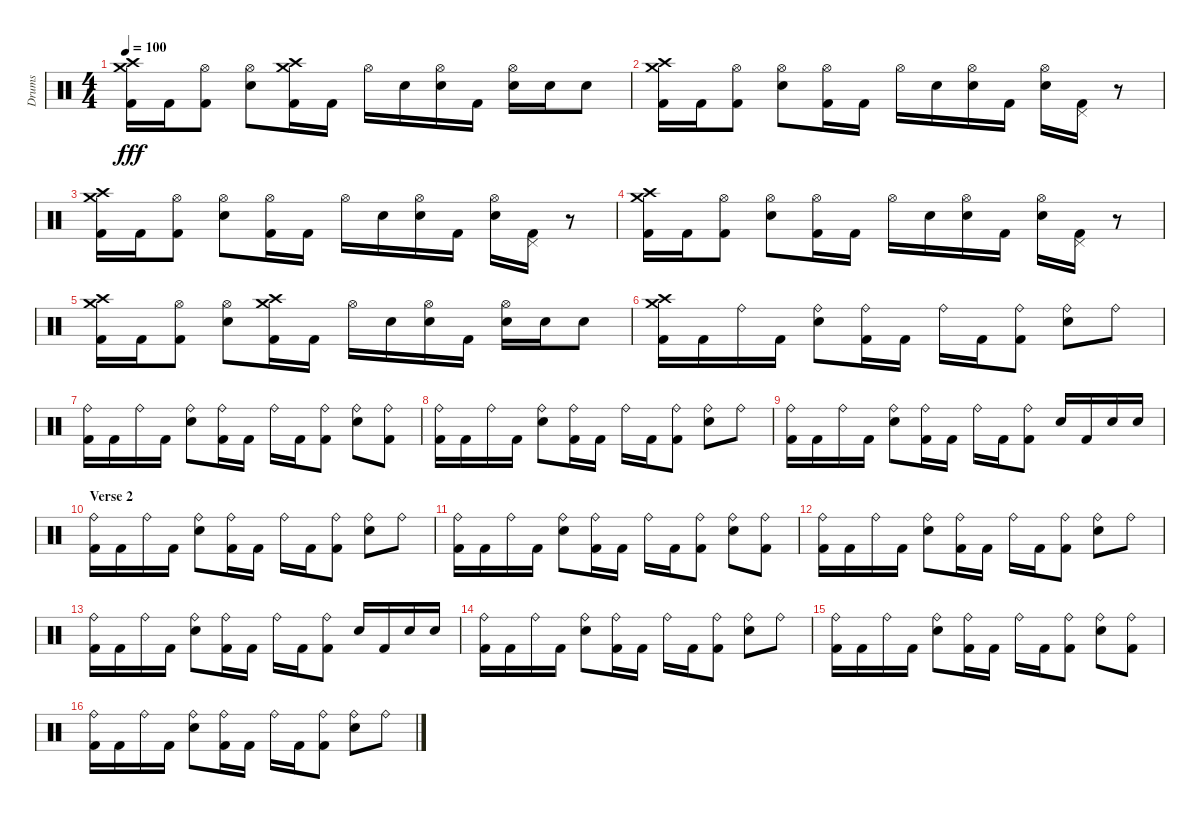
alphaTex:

\track ("Drums" "Drums") {instrument percussion}
\staff {score}
\articulation defaults
\ts (4 4)
\tempo 100
\clef neutral
\ks c
("Crash high (hit)" "Crash medium (hit)" "Kick (hit) 2").16{dy fff} "Kick (hit) 2".16 ("Hi-Hat (open)" "Kick (hit) 2").8 ("Hi-Hat (open)" "Electric Snare (hit)").8 ("Crash high (hit)" "Crash medium (hit)" "Kick (hit) 2").16 "Kick (hit) 2".16 "Hi-Hat (open)".16 "Electric Snare (hit)".16 ("Hi-Hat (open)" "Electric Snare (hit)").16 "Kick (hit) 2".16 ("Hi-Hat (open)" "Electric Snare (hit)").16 "Electric Snare (hit)".16 "Electric Snare (hit)".8 |
("Crash high (hit)" "Crash medium (hit)" "Kick (hit) 2").16 "Kick (hit) 2".16 ("Hi-Hat (open)" "Kick (hit) 2").8 ("Hi-Hat (open)" "Electric Snare (hit)").8 ("Hi-Hat (open)" "Kick (hit) 2").16 "Kick (hit) 2".16 "Hi-Hat (open)".16 "Electric Snare (hit)".16 ("Hi-Hat (open)" "Electric Snare (hit)").16 "Kick (hit) 2".16 ("Hi-Hat (open)" "Electric Snare (hit)").16 ("Pedal Hi-Hat (hit)" "Kick (hit) 2").16 r.8 |
("Crash high (hit)" "Crash medium (hit)" "Kick (hit) 2").16 "Kick (hit) 2".16 ("Hi-Hat (open)" "Kick (hit) 2").8 ("Hi-Hat (open)" "Electric Snare (hit)").8 ("Hi-Hat (open)" "Kick (hit) 2").16 "Kick (hit) 2".16 "Hi-Hat (open)".16 "Electric Snare (hit)".16 ("Hi-Hat (open)" "Electric Snare (hit)").16 "Kick (hit) 2".16 ("Hi-Hat (open)" "Electric Snare (hit)").16 ("Pedal Hi-Hat (hit)" "Kick (hit) 2").16 r.8 |
("Crash high (hit)" "Crash medium (hit)" "Kick (hit) 2").16 "Kick (hit) 2".16 ("Hi-Hat (open)" "Kick (hit) 2").8 ("Hi-Hat (open)" "Electric Snare (hit)").8 ("Hi-Hat (open)" "Kick (hit) 2").16 "Kick (hit) 2".16 "Hi-Hat (open)".16 "Electric Snare (hit)".16 ("Hi-Hat (open)" "Electric Snare (hit)").16 "Kick (hit) 2".16 ("Hi-Hat (open)" "Electric Snare (hit)").16 ("Pedal Hi-Hat (hit)" "Kick (hit) 2").16 r.8 |
("Crash high (hit)" "Crash medium (hit)" "Kick (hit) 2").16 "Kick (hit) 2".16 ("Hi-Hat (open)" "Kick (hit) 2").8 ("Hi-Hat (open)" "Electric Snare (hit)").8 ("Crash high (hit)" "Crash medium (hit)" "Kick (hit) 2").16 "Kick (hit) 2".16 "Hi-Hat (open)".16 "Electric Snare (hit)".16 ("Hi-Hat (open)" "Electric Snare (hit)").16 "Kick (hit) 2".16 ("Hi-Hat (open)" "Electric Snare (hit)").16 "Electric Snare (hit)".16 "Electric Snare (hit)".8 |
("Crash high (hit)" "Crash medium (hit)" "Kick (hit) 2").16 "Kick (hit) 2".16 "Ride (bell)".16 "Kick (hit) 2".16 ("Ride (bell)" "Electric Snare (hit)").8 ("Ride (bell)" "Kick (hit) 2").16 "Kick (hit) 2".16 "Ride (bell)".16 "Kick (hit) 2".16 ("Ride (bell)" "Kick (hit) 2").8 ("Ride (bell)" "Electric Snare (hit)").8 "Ride (bell)".8 |
("Ride (bell)" "Kick (hit) 2").16 "Kick (hit) 2".16 "Ride (bell)".16 "Kick (hit) 2".16 ("Ride (bell)" "Electric Snare (hit)").8 ("Ride (bell)" "Kick (hit) 2").16 "Kick (hit) 2".16 "Ride (bell)".16 "Kick (hit) 2".16 ("Ride (bell)" "Kick (hit) 2").8 ("Ride (bell)" "Electric Snare (hit)").8 ("Ride (bell)" "Kick (hit) 2").8 |
("Ride (bell)" "Kick (hit) 2").16 "Kick (hit) 2".16 "Ride (bell)".16 "Kick (hit) 2".16 ("Ride (bell)" "Electric Snare (hit)").8 ("Ride (bell)" "Kick (hit) 2").16 "Kick (hit) 2".16 "Ride (bell)".16 "Kick (hit) 2".16 ("Ride (bell)" "Kick (hit) 2").8 ("Ride (bell)" "Electric Snare (hit)").8 "Ride (bell)".8 |
("Ride (bell)" "Kick (hit) 2").16 "Kick (hit) 2".16 "Ride (bell)".16 "Kick (hit) 2".16 ("Ride (bell)" "Electric Snare (hit)").8 ("Ride (bell)" "Kick (hit) 2").16 "Kick (hit) 2".16 "Ride (bell)".16 "Kick (hit) 2".16 ("Ride (bell)" "Kick (hit) 2").8 "Electric Snare (hit)".16 "Kick (hit) 2".16 "Electric Snare (hit)".16 "Electric Snare (hit)".16 |
\section ("" "Verse 2")
("Ride (bell)" "Kick (hit) 2").16 "Kick (hit) 2".16 "Ride (bell)".16 "Kick (hit) 2".16 ("Ride (bell)" "Electric Snare (hit)").8 ("Ride (bell)" "Kick (hit) 2").16 "Kick (hit) 2".16 "Ride (bell)".16 "Kick (hit) 2".16 ("Ride (bell)" "Kick (hit) 2").8 ("Ride (bell)" "Electric Snare (hit)").8 "Ride (bell)".8 |
("Ride (bell)" "Kick (hit) 2").16 "Kick (hit) 2".16 "Ride (bell)".16 "Kick (hit) 2".16 ("Ride (bell)" "Electric Snare (hit)").8 ("Ride (bell)" "Kick (hit) 2").16 "Kick (hit) 2".16 "Ride (bell)".16 "Kick (hit) 2".16 ("Ride (bell)" "Kick (hit) 2").8 ("Ride (bell)" "Electric Snare (hit)").8 ("Ride (bell)" "Kick (hit) 2").8 |
("Ride (bell)" "Kick (hit) 2").16 "Kick (hit) 2".16 "Ride (bell)".16 "Kick (hit) 2".16 ("Ride (bell)" "Electric Snare (hit)").8 ("Ride (bell)" "Kick (hit) 2").16 "Kick (hit) 2".16 "Ride (bell)".16 "Kick (hit) 2".16 ("Ride (bell)" "Kick (hit) 2").8 ("Ride (bell)" "Electric Snare (hit)").8 "Ride (bell)".8 |
("Ride (bell)" "Kick (hit) 2").16 "Kick (hit) 2".16 "Ride (bell)".16 "Kick (hit) 2".16 ("Ride (bell)" "Electric Snare (hit)").8 ("Ride (bell)" "Kick (hit) 2").16 "Kick (hit) 2".16 "Ride (bell)".16 "Kick (hit) 2".16 ("Ride (bell)" "Kick (hit) 2").8 "Electric Snare (hit)".16 "Kick (hit) 2".16 "Electric Snare (hit)".16 "Electric Snare (hit)".16 |
("Ride (bell)" "Kick (hit) 2").16 "Kick (hit) 2".16 "Ride (bell)".16 "Kick (hit) 2".16 ("Ride (bell)" "Electric Snare (hit)").8 ("Ride (bell)" "Kick (hit) 2").16 "Kick (hit) 2".16 "Ride (bell)".16 "Kick (hit) 2".16 ("Ride (bell)" "Kick (hit) 2").8 ("Ride (bell)" "Electric Snare (hit)").8 "Ride (bell)".8 |
("Ride (bell)" "Kick (hit) 2").16 "Kick (hit) 2".16 "Ride (bell)".16 "Kick (hit) 2".16 ("Ride (bell)" "Electric Snare (hit)").8 ("Ride (bell)" "Kick (hit) 2").16 "Kick (hit) 2".16 "Ride (bell)".16 "Kick (hit) 2".16 ("Ride (bell)" "Kick (hit) 2").8 ("Ride (bell)" "Electric Snare (hit)").8 ("Ride (bell)" "Kick (hit) 2").8 |
("Ride (bell)" "Kick (hit) 2").16 "Kick (hit) 2".16 "Ride (bell)".16 "Kick (hit) 2".16 ("Ride (bell)" "Electric Snare (hit)").8 ("Ride (bell)" "Kick (hit) 2").16 "Kick (hit) 2".16 "Ride (bell)".16 "Kick (hit) 2".16 ("Ride (bell)" "Kick (hit) 2").8 ("Ride (bell)" "Electric Snare (hit)").8 "Ride (bell)".8
